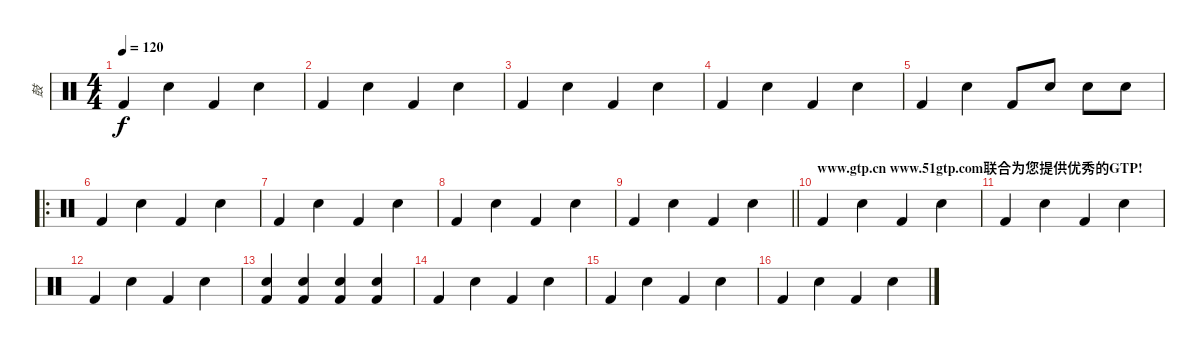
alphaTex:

\track ("鼓" "鼓") {instrument percussion}
\staff {score}
\articulation defaults
\ts (4 4)
\tempo 120
\clef neutral
\ks c "Kick (hit) 2".4{dy f} "Snare (hit) 2".4 "Kick (hit) 2".4 "Snare (hit) 2".4
|
"Kick (hit) 2".4 "Snare (hit) 2".4 "Kick (hit) 2".4 "Snare (hit) 2".4 |
"Kick (hit) 2".4 "Snare (hit) 2".4 "Kick (hit) 2".4 "Snare (hit) 2".4 |
"Kick (hit) 2".4 "Snare (hit) 2".4 "Kick (hit) 2".4 "Snare (hit) 2".4 |
"Kick (hit) 2".4 "Snare (hit) 2".4 "Kick (hit) 2".8 "Snare (hit) 2".8 "Snare (hit) 2".8 "Snare (hit) 2".8 |
\ro "Kick (hit) 2".4 "Electric Snare (hit)".4 "Kick (hit) 2".4 "Electric Snare (hit)".4
|
"Kick (hit) 2".4 "Electric Snare (hit)".4 "Kick (hit) 2".4 "Electric Snare (hit)".4 |
"Kick (hit) 2".4 "Electric Snare (hit)".4 "Kick (hit) 2".4 "Electric Snare (hit)".4 |
\barLineRight lightlight "Kick (hit) 2".4 "Electric Snare (hit)".4 "Kick (hit) 2".4 "Electric Snare (hit)".4
|
\section ("" "www.gtp.cn www.51gtp.com联合为您提供优秀的GTP!")
"Kick (hit) 2".4 "Electric Snare (hit)".4 "Kick (hit) 2".4 "Electric Snare (hit)".4 |
"Kick (hit) 2".4 "Electric Snare (hit)".4 "Kick (hit) 2".4 "Electric Snare (hit)".4 |
"Kick (hit) 2".4 "Electric Snare (hit)".4 "Kick (hit) 2".4 "Electric Snare (hit)".4 |
("Electric Snare (hit)" "Kick (hit) 2").4 ("Kick (hit) 2" "Electric Snare (hit)").4 ("Electric Snare (hit)" "Kick (hit) 2").4 ("Kick (hit) 2" "Electric Snare (hit)").4 |
"Kick (hit) 2".4 "Electric Snare (hit)".4 "Kick (hit) 2".4 "Electric Snare (hit)".4 |
"Kick (hit) 2".4 "Electric Snare (hit)".4 "Kick (hit) 2".4 "Electric Snare (hit)".4 |
"Kick (hit) 2".4 "Electric Snare (hit)".4 "Kick (hit) 2".4 "Electric Snare (hit)".4
